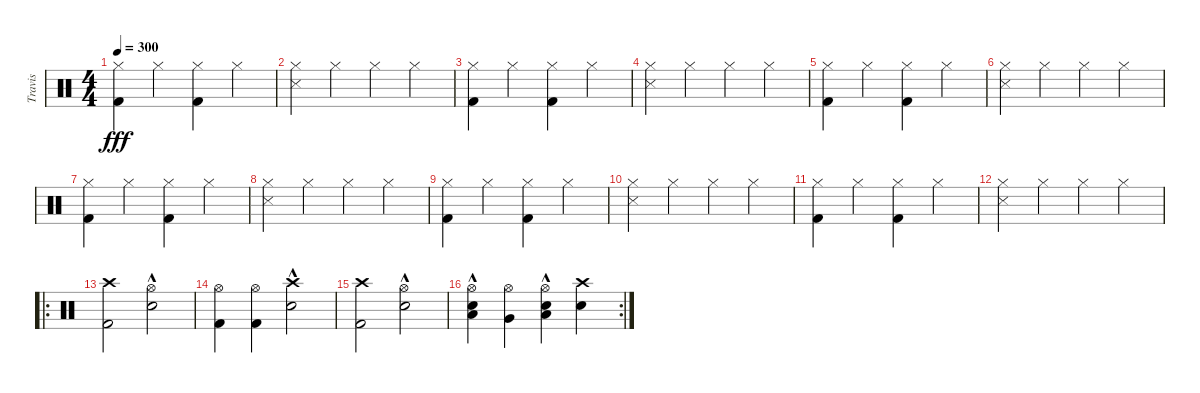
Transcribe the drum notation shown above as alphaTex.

\track ("Travis" "Travis") {instrument percussion}
\staff {score}
\articulation defaults
\ts (4 4)
\tempo 300
\clef neutral
\ks c
("Hi-Hat (closed)" "Kick (hit) 2").4{dy fff} "Hi-Hat (closed)".4 ("Hi-Hat (closed)" "Kick (hit) 2").4 "Hi-Hat (closed)".4 |
("Hi-Hat (closed)" "Snare (side stick) 3").4 "Hi-Hat (closed)".4 "Hi-Hat (closed)".4 "Hi-Hat (closed)".4 |
("Hi-Hat (closed)" "Kick (hit) 2").4 "Hi-Hat (closed)".4 ("Hi-Hat (closed)" "Kick (hit) 2").4 "Hi-Hat (closed)".4 |
("Hi-Hat (closed)" "Snare (side stick) 3").4 "Hi-Hat (closed)".4 "Hi-Hat (closed)".4 "Hi-Hat (closed)".4 |
("Hi-Hat (closed)" "Kick (hit) 2").4 "Hi-Hat (closed)".4 ("Hi-Hat (closed)" "Kick (hit) 2").4 "Hi-Hat (closed)".4 |
("Hi-Hat (closed)" "Snare (side stick) 3").4 "Hi-Hat (closed)".4 "Hi-Hat (closed)".4 "Hi-Hat (closed)".4 |
("Hi-Hat (closed)" "Kick (hit) 2").4 "Hi-Hat (closed)".4 ("Hi-Hat (closed)" "Kick (hit) 2").4 "Hi-Hat (closed)".4 |
("Hi-Hat (closed)" "Snare (side stick) 3").4 "Hi-Hat (closed)".4 "Hi-Hat (closed)".4 "Hi-Hat (closed)".4 |
("Hi-Hat (closed)" "Kick (hit) 2").4 "Hi-Hat (closed)".4 ("Hi-Hat (closed)" "Kick (hit) 2").4 "Hi-Hat (closed)".4 |
("Hi-Hat (closed)" "Snare (side stick) 3").4 "Hi-Hat (closed)".4 "Hi-Hat (closed)".4 "Hi-Hat (closed)".4 |
("Hi-Hat (closed)" "Kick (hit) 2").4 "Hi-Hat (closed)".4 ("Hi-Hat (closed)" "Kick (hit) 2").4 "Hi-Hat (closed)".4 |
("Hi-Hat (closed)" "Snare (side stick) 3").4 "Hi-Hat (closed)".4 "Hi-Hat (closed)".4 "Hi-Hat (closed)".4 |
\ro
("Crash high (hit)" "Kick (hit) 2").2 ("Hi-Hat (open)" "Electric Snare (hit)"{hac}).2 |
("Hi-Hat (open)" "Kick (hit) 2").4 ("Hi-Hat (open)" "Kick (hit) 2").4 ("Crash high (hit)" "Electric Snare (hit)"{hac}).2 |
("Crash high (hit)" "Kick (hit) 2").2 ("Hi-Hat (open)" "Electric Snare (hit)"{hac}).2 |
\rc 2
("Hi-Hat (open)" "Low Tom (hit)" "Electric Snare (hit)"{hac}).4 ("Hi-Hat (open)" "Very Low Tom (hit)").4 ("Hi-Hat (open)" "Low Floor Tom (hit)" "Electric Snare (hit)"{hac}).4 ("Crash high (hit)" "Electric Snare (hit)").4
